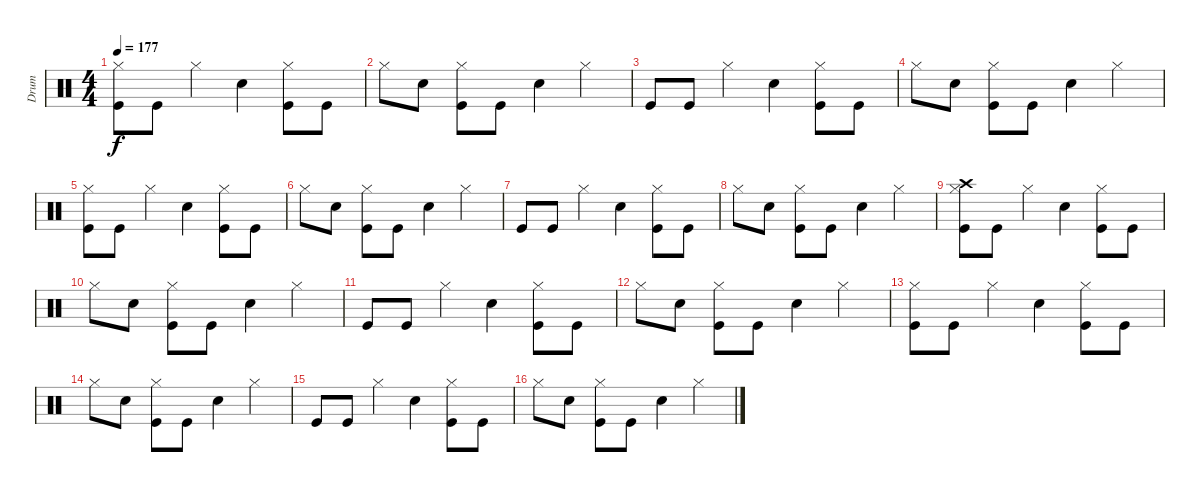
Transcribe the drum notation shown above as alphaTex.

\track ("Drum" "Drum") {instrument percussion}
\staff {score}
\articulation defaults
\ts (4 4)
\tempo 177
\clef neutral
\ks c
("Kick (hit)" "Hi-Hat (closed)").8{dy f} "Kick (hit)".8 "Hi-Hat (closed)".4 "Snare (hit) 2".4 ("Kick (hit)" "Hi-Hat (closed)").8 "Kick (hit)".8 |
"Hi-Hat (closed)".8 "Snare (hit) 2".8 ("Kick (hit)" "Hi-Hat (closed)").8 "Kick (hit)".8 "Snare (hit) 2".4 "Hi-Hat (closed)".4 |
"Kick (hit)".8 "Kick (hit)".8 "Hi-Hat (closed)".4 "Snare (hit) 2".4 ("Kick (hit)" "Hi-Hat (closed)").8 "Kick (hit)".8 |
"Hi-Hat (closed)".8 "Snare (hit) 2".8 ("Kick (hit)" "Hi-Hat (closed)").8 "Kick (hit)".8 "Snare (hit) 2".4 "Hi-Hat (closed)".4 |
("Kick (hit)" "Hi-Hat (closed)").8 "Kick (hit)".8 "Hi-Hat (closed)".4 "Snare (hit) 2".4 ("Kick (hit)" "Hi-Hat (closed)").8 "Kick (hit)".8 |
"Hi-Hat (closed)".8 "Snare (hit) 2".8 ("Kick (hit)" "Hi-Hat (closed)").8 "Kick (hit)".8 "Snare (hit) 2".4 "Hi-Hat (closed)".4 |
"Kick (hit)".8 "Kick (hit)".8 "Hi-Hat (closed)".4 "Snare (hit) 2".4 ("Kick (hit)" "Hi-Hat (closed)").8 "Kick (hit)".8 |
"Hi-Hat (closed)".8 "Snare (hit) 2".8 ("Kick (hit)" "Hi-Hat (closed)").8 "Kick (hit)".8 "Snare (hit) 2".4 "Hi-Hat (closed)".4 |
("Kick (hit)" "Hi-Hat (closed)" "Crash high (hit)").8 "Kick (hit)".8 "Hi-Hat (closed)".4 "Snare (hit) 2".4 ("Kick (hit)" "Hi-Hat (closed)").8 "Kick (hit)".8 |
"Hi-Hat (closed)".8 "Snare (hit) 2".8 ("Kick (hit)" "Hi-Hat (closed)").8 "Kick (hit)".8 "Snare (hit) 2".4 "Hi-Hat (closed)".4 |
"Kick (hit)".8 "Kick (hit)".8 "Hi-Hat (closed)".4 "Snare (hit) 2".4 ("Kick (hit)" "Hi-Hat (closed)").8 "Kick (hit)".8 |
"Hi-Hat (closed)".8 "Snare (hit) 2".8 ("Kick (hit)" "Hi-Hat (closed)").8 "Kick (hit)".8 "Snare (hit) 2".4 "Hi-Hat (closed)".4 |
("Kick (hit)" "Hi-Hat (closed)").8 "Kick (hit)".8 "Hi-Hat (closed)".4 "Snare (hit) 2".4 ("Kick (hit)" "Hi-Hat (closed)").8 "Kick (hit)".8 |
"Hi-Hat (closed)".8 "Snare (hit) 2".8 ("Kick (hit)" "Hi-Hat (closed)").8 "Kick (hit)".8 "Snare (hit) 2".4 "Hi-Hat (closed)".4 |
"Kick (hit)".8 "Kick (hit)".8 "Hi-Hat (closed)".4 "Snare (hit) 2".4 ("Kick (hit)" "Hi-Hat (closed)").8 "Kick (hit)".8 |
"Hi-Hat (closed)".8 "Snare (hit) 2".8 ("Kick (hit)" "Hi-Hat (closed)").8 "Kick (hit)".8 "Snare (hit) 2".4 "Hi-Hat (closed)".4
